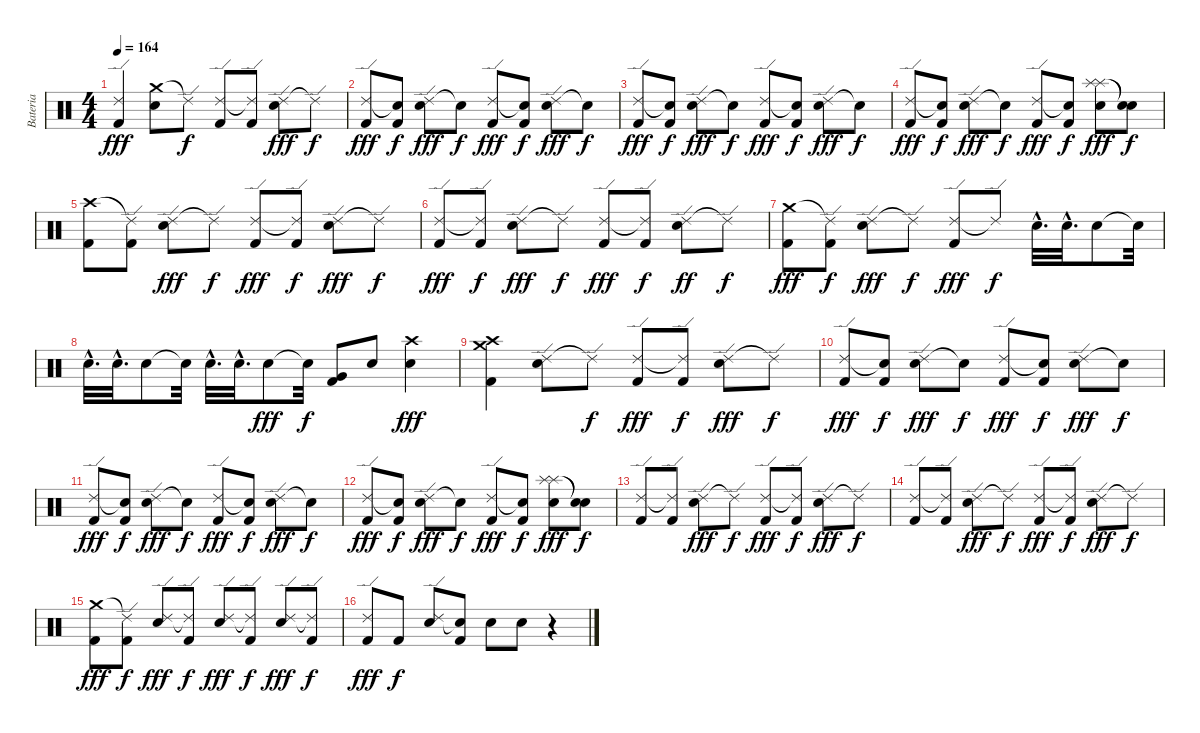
\track ("Bateria" "Bateria") {instrument percussion}
\staff {score}
\articulation defaults
\ts (4 4)
\tempo 164
\clef neutral
\ks c
("Ride (edge) 2" "Kick (hit) 2").4{dy fff} ("Crash medium (hit)" "Electric Snare (hit)").8 "Ride (edge) 2"{t}.8{dy f} ("Ride (edge) 2" "Kick (hit) 2").8 ("Ride (edge) 2"{t} "Kick (hit) 2").8 ("Ride (edge) 2" "Electric Snare (hit)").8{dy fff} "Ride (edge) 2"{t}.8{dy f} |
("Ride (edge) 2" "Kick (hit) 2").8{dy fff} ("Snare (hit)"{t} "Kick (hit) 2").8{dy f} ("Ride (edge) 2" "Electric Snare (hit)").8{dy fff} "Snare (hit)"{t}.8{dy f} ("Ride (edge) 2" "Kick (hit) 2").8{dy fff} ("Snare (hit)"{t} "Kick (hit) 2").8{dy f} ("Ride (edge) 2" "Electric Snare (hit)").8{dy fff} "Snare (hit)"{t}.8{dy f} |
("Ride (edge) 2" "Kick (hit) 2").8{dy fff} ("Snare (hit)"{t} "Kick (hit) 2").8{dy f} ("Ride (edge) 2" "Electric Snare (hit)").8{dy fff} "Snare (hit)"{t}.8{dy f} ("Ride (edge) 2" "Kick (hit) 2").8{dy fff} ("Snare (hit)"{t} "Kick (hit) 2").8{dy f} ("Ride (edge) 2" "Electric Snare (hit)").8{dy fff} "Snare (hit)"{t}.8{dy f} |
("Ride (edge) 2" "Kick (hit) 2").8{dy fff} ("Snare (hit)"{t} "Kick (hit) 2").8{dy f} ("Ride (edge) 2" "Electric Snare (hit)").8{dy fff} "Snare (hit)"{t}.8{dy f} ("Ride (edge) 2" "Kick (hit) 2").8{dy fff} ("Snare (hit)"{t} "Kick (hit) 2").8{dy f} ("Splash (hit)" "Splash (hit)" "Electric Snare (hit)").8{dy fff} ("Snare (hit)"{t} "Snare (hit)"{t}).8{dy f} |
("Crash high (hit)" "Kick (hit) 2").8 ("Ride (edge) 2"{t} "Kick (hit) 2").8 ("Ride (edge) 2" "Electric Snare (hit)").8{dy fff} "Ride (edge) 2"{t}.8{dy f} ("Ride (edge) 2" "Kick (hit) 2").8{dy fff} ("Ride (edge) 2"{t} "Kick (hit) 2").8{dy f} ("Ride (edge) 2" "Electric Snare (hit)").8{dy fff} "Ride (edge) 2"{t}.8{dy f} |
("Ride (edge) 2" "Kick (hit) 2").8{dy fff} ("Ride (edge) 2"{t} "Kick (hit) 2").8{dy f} ("Ride (edge) 2" "Electric Snare (hit)").8{dy fff} "Ride (edge) 2"{t}.8{dy f} ("Ride (edge) 2" "Kick (hit) 2").8{dy fff} ("Ride (edge) 2"{t} "Kick (hit) 2").8{dy f} ("Ride (edge) 2" "Electric Snare (hit)").8{dy ff} "Ride (edge) 2"{t}.8{dy f} |
("Crash medium (hit)" "Kick (hit) 2").8{dy fff} ("Ride (edge) 2"{t} "Kick (hit) 2").8{dy f} ("Ride (edge) 2" "Electric Snare (hit)").8{dy fff} "Ride (edge) 2"{t}.8{dy f} ("Ride (edge) 2" "Kick (hit) 2").8{dy fff} "Ride (edge) 2"{t}.8{dy f} "Electric Snare (hit)"{hac}.32{d} "Electric Snare (hit)"{hac}.32{d} "Electric Snare (hit)".8 "Electric Snare (hit)"{t}.32 |
"Electric Snare (hit)"{hac}.32{d} "Electric Snare (hit)"{hac}.32{d} "Electric Snare (hit)".8 "Electric Snare (hit)"{t}.32 "Electric Snare (hit)"{hac}.32{d} "Electric Snare (hit)"{hac}.32{d} "Electric Snare (hit)".8{dy fff} "Snare (hit)"{t}.32{dy f} ("Very Low Tom (hit)" "Kick (hit) 2").8 "Electric Snare (hit)".8 ("Crash high (hit)" "Electric Snare (hit)").4{dy fff} |
("Crash medium (hit)" "Crash high (hit)" "Kick (hit) 2").4 ("Ride (edge) 2" "Electric Snare (hit)").8 "Ride (edge) 2"{t}.8{dy f} ("Ride (edge) 2" "Kick (hit) 2").8{dy fff} ("Ride (edge) 2"{t} "Kick (hit) 2").8{dy f} ("Ride (edge) 2" "Electric Snare (hit)").8{dy fff} "Ride (edge) 2"{t}.8{dy f} |
("Ride (edge) 2" "Kick (hit) 2").8{dy fff} ("Snare (hit)"{t} "Kick (hit) 2").8{dy f} ("Ride (edge) 2" "Electric Snare (hit)").8{dy fff} "Snare (hit)"{t}.8{dy f} ("Ride (edge) 2" "Kick (hit) 2").8{dy fff} ("Snare (hit)"{t} "Kick (hit) 2").8{dy f} ("Ride (edge) 2" "Electric Snare (hit)").8{dy fff} "Snare (hit)"{t}.8{dy f} |
("Ride (edge) 2" "Kick (hit) 2").8{dy fff} ("Snare (hit)"{t} "Kick (hit) 2").8{dy f} ("Ride (edge) 2" "Electric Snare (hit)").8{dy fff} "Snare (hit)"{t}.8{dy f} ("Ride (edge) 2" "Kick (hit) 2").8{dy fff} ("Snare (hit)"{t} "Kick (hit) 2").8{dy f} ("Ride (edge) 2" "Electric Snare (hit)").8{dy fff} "Snare (hit)"{t}.8{dy f} |
("Ride (edge) 2" "Kick (hit) 2").8{dy fff} ("Snare (hit)"{t} "Kick (hit) 2").8{dy f} ("Ride (edge) 2" "Electric Snare (hit)").8{dy fff} "Snare (hit)"{t}.8{dy f} ("Ride (edge) 2" "Kick (hit) 2").8{dy fff} ("Snare (hit)"{t} "Kick (hit) 2").8{dy f} ("Splash (hit)" "Splash (hit)" "Electric Snare (hit)").8{dy fff} ("Snare (hit)"{t} "Snare (hit)"{t}).8{dy f} |
("Ride (edge) 2" "Kick (hit) 2").8 ("Ride (edge) 2"{t} "Kick (hit) 2").8 ("Ride (edge) 2" "Electric Snare (hit)").8{dy fff} "Ride (edge) 2"{t}.8{dy f} ("Ride (edge) 2" "Kick (hit) 2").8{dy fff} ("Ride (edge) 2"{t} "Kick (hit) 2").8{dy f} ("Ride (edge) 2" "Electric Snare (hit)").8{dy fff} "Ride (edge) 2"{t}.8{dy f} |
("Ride (edge) 2" "Kick (hit) 2").8 ("Ride (edge) 2"{t} "Kick (hit) 2").8 ("Ride (edge) 2" "Electric Snare (hit)").8{dy fff} "Ride (edge) 2"{t}.8{dy f} ("Ride (edge) 2" "Kick (hit) 2").8{dy fff} ("Ride (edge) 2"{t} "Kick (hit) 2").8{dy f} ("Ride (edge) 2" "Electric Snare (hit)").8{dy fff} "Ride (edge) 2"{t}.8{dy f} |
("Crash medium (hit)" "Kick (hit) 2").8{dy fff} ("Ride (edge) 2"{t} "Kick (hit) 2").8{dy f} ("Ride (edge) 2" "Electric Snare (hit)").8{dy fff} ("Ride (edge) 2"{t} "Kick (hit) 2").8{dy f} ("Ride (edge) 2" "Electric Snare (hit)").8{dy fff} ("Ride (edge) 2"{t} "Kick (hit) 2").8{dy f} ("Ride (edge) 2" "Electric Snare (hit)").8{dy fff} ("Ride (edge) 2"{t} "Kick (hit) 2").8{dy f} |
("Ride (edge) 2" "Kick (hit) 2").8{dy fff} "Kick (hit) 2".8{dy f} ("Ride (edge) 2" "Electric Snare (hit)").8 ("Snare (hit)"{t} "Kick (hit) 2").8 "Electric Snare (hit)".8 "Electric Snare (hit)".8 r.4
